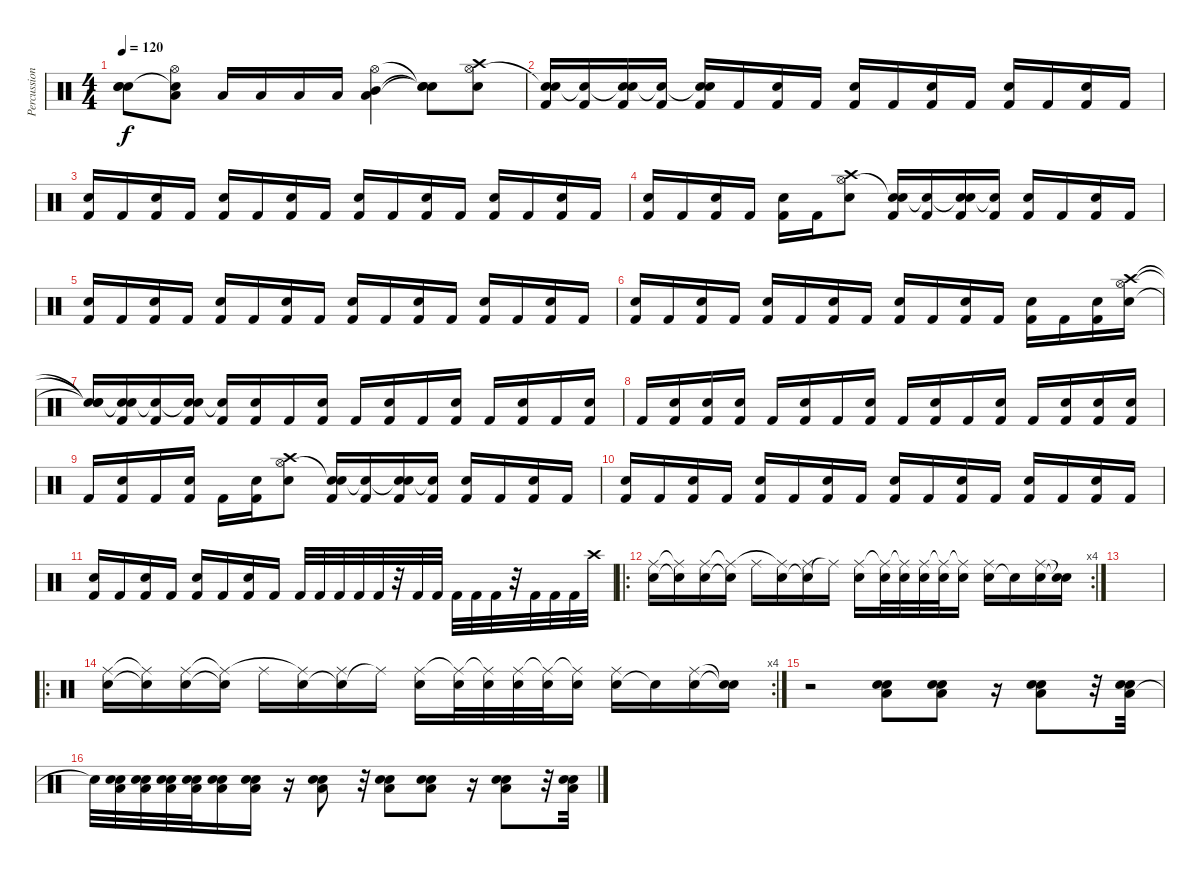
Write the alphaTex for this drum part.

\track ("Percussion" "Percussion") {instrument percussion}
\staff {score}
\articulation defaults
\ts (4 4)
\tempo 120
\clef neutral
\ks c
("Snare (hit)"{t} "Snare (hit)"{t} "Snare (hit)"{t}).8{dy f} ("Hi-Hat (open)" "Low Tom (hit)" "Snare (hit)"{t}).8 "Low Tom (hit)".16 "Low Tom (hit)".16 "Low Tom (hit)".16 "Low Tom (hit)".16 ("Hi-Hat (open)" "Low Tom (hit)" "Mid Tom (hit)").4 ("Snare (hit)"{t} "Snare (hit)"{t} "Snare (hit)"{t}).8 ("Hi-Hat (open)" "Crash high (hit)" "Electric Snare (hit)").8 |
("Snare (hit)"{t} "Snare (hit) 2" "Kick (hit) 2").16 ("Snare (hit)"{t} "Kick (hit) 2").16 ("Snare (hit)"{t} "Snare (hit) 2" "Kick (hit) 2").16 ("Snare (hit)"{t} "Kick (hit) 2").16 ("Snare (hit)"{t} "Snare (hit) 2" "Kick (hit) 2").16 "Kick (hit) 2".16 ("Snare (hit) 2" "Kick (hit) 2").16 "Kick (hit) 2".16 ("Snare (hit) 2" "Kick (hit) 2").16 "Kick (hit) 2".16 ("Snare (hit) 2" "Kick (hit) 2").16 "Kick (hit) 2".16 ("Snare (hit) 2" "Kick (hit) 2").16 "Kick (hit) 2".16 ("Snare (hit) 2" "Kick (hit) 2").16 "Kick (hit) 2".16 |
("Snare (hit) 2" "Kick (hit) 2").16 "Kick (hit) 2".16 ("Snare (hit) 2" "Kick (hit) 2").16 "Kick (hit) 2".16 ("Snare (hit) 2" "Kick (hit) 2").16 "Kick (hit) 2".16 ("Snare (hit) 2" "Kick (hit) 2").16 "Kick (hit) 2".16 ("Snare (hit) 2" "Kick (hit) 2").16 "Kick (hit) 2".16 ("Snare (hit) 2" "Kick (hit) 2").16 "Kick (hit) 2".16 ("Snare (hit) 2" "Kick (hit) 2").16 "Kick (hit) 2".16 ("Snare (hit) 2" "Kick (hit) 2").16 "Kick (hit) 2".16 |
("Snare (hit) 2" "Kick (hit) 2").16 "Kick (hit) 2".16 ("Snare (hit) 2" "Kick (hit) 2").16 "Kick (hit) 2".16 ("Snare (hit) 2" "Kick (hit) 2").16 "Kick (hit) 2".16 ("Hi-Hat (open)" "Crash high (hit)" "Electric Snare (hit)").8 ("Snare (hit)"{t} "Snare (hit) 2" "Kick (hit) 2").16 ("Snare (hit)"{t} "Kick (hit) 2").16 ("Snare (hit)"{t} "Snare (hit) 2" "Kick (hit) 2").16 ("Snare (hit)"{t} "Kick (hit) 2").16 ("Snare (hit) 2" "Kick (hit) 2").16 "Kick (hit) 2".16 ("Snare (hit) 2" "Kick (hit) 2").16 "Kick (hit) 2".16 |
("Snare (hit) 2" "Kick (hit) 2").16 "Kick (hit) 2".16 ("Snare (hit) 2" "Kick (hit) 2").16 "Kick (hit) 2".16 ("Snare (hit) 2" "Kick (hit) 2").16 "Kick (hit) 2".16 ("Snare (hit) 2" "Kick (hit) 2").16 "Kick (hit) 2".16 ("Snare (hit) 2" "Kick (hit) 2").16 "Kick (hit) 2".16 ("Snare (hit) 2" "Kick (hit) 2").16 "Kick (hit) 2".16 ("Snare (hit) 2" "Kick (hit) 2").16 "Kick (hit) 2".16 ("Snare (hit) 2" "Kick (hit) 2").16 "Kick (hit) 2".16 |
("Snare (hit) 2" "Kick (hit) 2").16 "Kick (hit) 2".16 ("Snare (hit) 2" "Kick (hit) 2").16 "Kick (hit) 2".16 ("Snare (hit) 2" "Kick (hit) 2").16 "Kick (hit) 2".16 ("Snare (hit) 2" "Kick (hit) 2").16 "Kick (hit) 2".16 ("Snare (hit) 2" "Kick (hit) 2").16 "Kick (hit) 2".16 ("Snare (hit) 2" "Kick (hit) 2").16 "Kick (hit) 2".16 ("Snare (hit) 2" "Kick (hit) 2").16 "Kick (hit) 2".16 ("Snare (hit) 2" "Kick (hit) 2").16 ("Hi-Hat (open)" "Crash high (hit)" "Electric Snare (hit)").16 |
("Snare (hit)"{t} "Snare (hit)"{t} "Snare (hit)"{t}).16 ("Snare (hit)"{t} "Snare (hit) 2" "Kick (hit) 2").16 ("Snare (hit)"{t} "Kick (hit) 2").16 ("Snare (hit)"{t} "Snare (hit) 2" "Kick (hit) 2").16 ("Snare (hit)"{t} "Kick (hit) 2").16 ("Snare (hit) 2" "Kick (hit) 2").16 "Kick (hit) 2".16 ("Snare (hit) 2" "Kick (hit) 2").16 "Kick (hit) 2".16 ("Snare (hit) 2" "Kick (hit) 2").16 "Kick (hit) 2".16 ("Snare (hit) 2" "Kick (hit) 2").16 "Kick (hit) 2".16 ("Snare (hit) 2" "Kick (hit) 2").16 "Kick (hit) 2".16 ("Snare (hit) 2" "Kick (hit) 2").16 |
"Kick (hit) 2".16 ("Snare (hit) 2" "Kick (hit) 2").16 ("Snare (hit)" "Kick (hit) 2").16 ("Snare (hit) 2" "Kick (hit) 2").16 "Kick (hit) 2".16 ("Snare (hit) 2" "Kick (hit) 2").16 "Kick (hit) 2".16 ("Snare (hit) 2" "Kick (hit) 2").16 "Kick (hit) 2".16 ("Snare (hit) 2" "Kick (hit) 2").16 "Kick (hit) 2".16 ("Snare (hit) 2" "Kick (hit) 2").16 "Kick (hit) 2".16 ("Snare (hit) 2" "Kick (hit) 2").16 ("Snare (hit)" "Kick (hit) 2").16 ("Snare (hit) 2" "Kick (hit) 2").16 |
"Kick (hit) 2".16 ("Snare (hit) 2" "Kick (hit) 2").16 "Kick (hit) 2".16 ("Snare (hit) 2" "Kick (hit) 2").16 "Kick (hit) 2".16 ("Snare (hit) 2" "Kick (hit) 2").16 ("Hi-Hat (open)" "Crash high (hit)" "Electric Snare (hit)").8 ("Snare (hit)"{t} "Snare (hit) 2" "Kick (hit) 2").16 ("Snare (hit)"{t} "Kick (hit) 2").16 ("Snare (hit)"{t} "Snare (hit) 2" "Kick (hit) 2").16 ("Snare (hit)"{t} "Kick (hit) 2").16 ("Snare (hit) 2" "Kick (hit) 2").16 "Kick (hit) 2".16 ("Snare (hit) 2" "Kick (hit) 2").16 "Kick (hit) 2".16 |
("Snare (hit) 2" "Kick (hit) 2").16 "Kick (hit) 2".16 ("Snare (hit) 2" "Kick (hit) 2").16 "Kick (hit) 2".16 ("Snare (hit) 2" "Kick (hit) 2").16 "Kick (hit) 2".16 ("Snare (hit) 2" "Kick (hit) 2").16 "Kick (hit) 2".16 ("Snare (hit) 2" "Kick (hit) 2").16 "Kick (hit) 2".16 ("Snare (hit) 2" "Kick (hit) 2").16 "Kick (hit) 2".16 ("Snare (hit) 2" "Kick (hit) 2").16 "Kick (hit) 2".16 ("Snare (hit) 2" "Kick (hit) 2").16 "Kick (hit) 2".16 |
("Snare (hit) 2" "Kick (hit) 2").16 "Kick (hit) 2".16 ("Snare (hit) 2" "Kick (hit) 2").16 "Kick (hit) 2".16 ("Snare (hit) 2" "Kick (hit) 2").16 "Kick (hit) 2".16 ("Snare (hit) 2" "Kick (hit) 2").16 "Kick (hit) 2".16 "Kick (hit) 2".32 "Kick (hit) 2".32 "Kick (hit) 2".32 "Kick (hit) 2".32 "Kick (hit) 2".32 r.32 "Kick (hit) 2".32 "Kick (hit) 2".32 "Kick (hit) 2".32 "Kick (hit) 2".32 "Kick (hit) 2".32 r.32 "Kick (hit) 2".32 "Kick (hit) 2".32 "Kick (hit) 2".32 "Crash high (hit)".32 |
\ro
\rc 4
("Electric Snare (hit)" "Ride (middle)").16 ("Snare (hit)"{t} "Ride (middle)"{t}).16 ("Electric Snare (hit)" "Ride (middle)").16 ("Snare (hit)"{t} "Ride (middle)"{t}).16 "Ride (middle)".16 ("Electric Snare (hit)" "Ride (middle)"{t}).16 ("Snare (hit)"{t} "Ride (middle)").16 "Ride (middle)"{t}.16 ("Electric Snare (hit)" "Ride (middle)").16 ("Electric Snare (hit)" "Ride (middle)"{t}).32 ("Electric Snare (hit)" "Ride (middle)"{t}).32 ("Electric Snare (hit)" "Ride (middle)").32 ("Electric Snare (hit)" "Ride (middle)"{t}).32 ("Electric Snare (hit)" "Ride (middle)"{t}).16 ("Electric Snare (hit)" "Ride (middle)").16 "Snare (hit)"{t}.16 ("Electric Snare (hit)" "Ride (middle)").16 ("Snare (hit)"{t} "Snare (hit)"{t}).16 |
|
\ro
\rc 4
("Electric Snare (hit)" "Ride (middle)").16 ("Snare (hit)"{t} "Ride (middle)"{t}).16 ("Electric Snare (hit)" "Ride (middle)").16 ("Snare (hit)"{t} "Ride (middle)"{t}).16 "Ride (middle)".16 ("Electric Snare (hit)" "Ride (middle)"{t}).16 ("Snare (hit)"{t} "Ride (middle)").16 "Ride (middle)"{t}.16 ("Electric Snare (hit)" "Ride (middle)").16 ("Electric Snare (hit)" "Ride (middle)"{t}).32 ("Electric Snare (hit)" "Ride (middle)"{t}).32 ("Electric Snare (hit)" "Ride (middle)").32 ("Electric Snare (hit)" "Ride (middle)"{t}).32 ("Electric Snare (hit)" "Ride (middle)"{t}).16 ("Electric Snare (hit)" "Ride (middle)").16 "Snare (hit)"{t}.16 ("Electric Snare (hit)" "Ride (middle)").16 ("Snare (hit)"{t} "Snare (hit)"{t}).16 |
r.2 ("Low Floor Tom (hit)" "Electric Snare (hit)" "Snare (hit) 2").8 ("Low Floor Tom (hit)" "Electric Snare (hit)" "Snare (hit) 2").8 r.16 ("Low Floor Tom (hit)" "Electric Snare (hit)" "Snare (hit) 2").8 r.32 ("Low Floor Tom (hit)" "Electric Snare (hit)" "Snare (hit) 2").32 |
"Electric Snare (hit)"{t}.32 ("Low Floor Tom (hit)" "Electric Snare (hit)" "Snare (hit) 2").32 ("Low Floor Tom (hit)" "Electric Snare (hit)" "Snare (hit) 2").32 ("Low Floor Tom (hit)" "Electric Snare (hit)" "Snare (hit) 2").32 ("Low Floor Tom (hit)" "Electric Snare (hit)" "Snare (hit) 2").32 ("Low Floor Tom (hit)" "Electric Snare (hit)" "Snare (hit) 2").16 ("Low Floor Tom (hit)" "Electric Snare (hit)" "Snare (hit) 2").16 r.16 ("Low Floor Tom (hit)" "Electric Snare (hit)" "Snare (hit) 2").8 r.32 ("Low Floor Tom (hit)" "Electric Snare (hit)" "Snare (hit) 2").8 ("Low Floor Tom (hit)" "Electric Snare (hit)" "Snare (hit) 2").8 r.16 ("Low Floor Tom (hit)" "Electric Snare (hit)" "Snare (hit) 2").8 r.32 ("Low Floor Tom (hit)" "Electric Snare (hit)" "Snare (hit) 2").32
